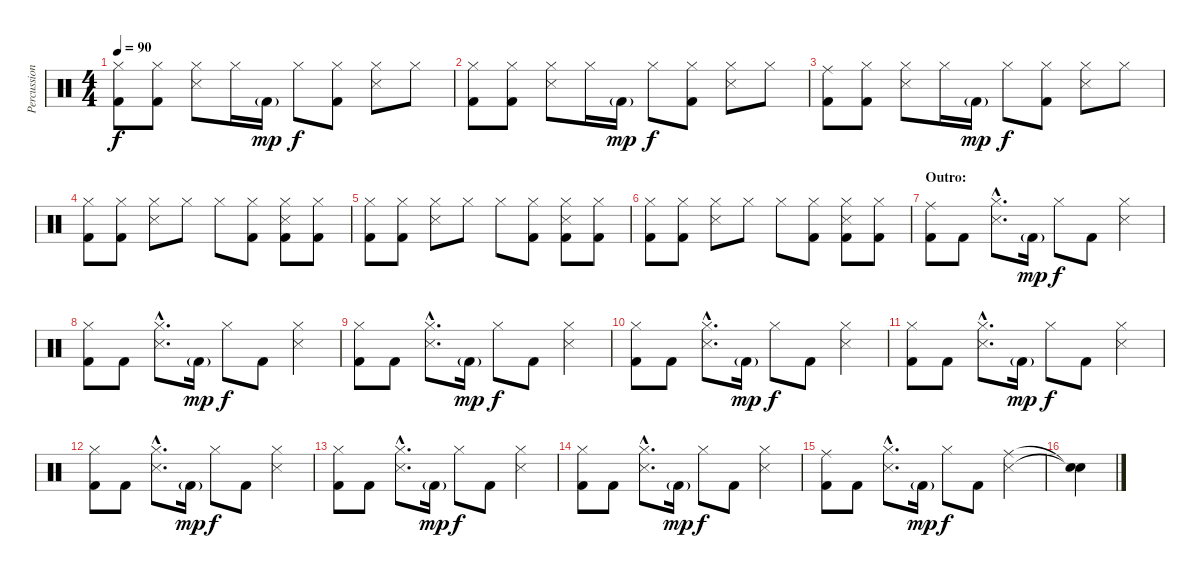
\track ("Percussion" "Percussion") {instrument percussion}
\staff {score}
\articulation defaults
\ts (4 4)
\tempo 90
\clef neutral
\ks c
("Hi-Hat (closed)" "Kick (hit) 2").8{dy f} ("Hi-Hat (closed)" "Kick (hit) 2").8 ("Hi-Hat (closed)" "Snare (side stick) 3").8 "Hi-Hat (closed)".16 "Kick (hit) 2"{g}.16{dy mp} "Hi-Hat (closed)".8{dy f} ("Hi-Hat (closed)" "Kick (hit) 2").8 ("Hi-Hat (closed)" "Snare (side stick) 3").8 "Hi-Hat (closed)".8 |
("Hi-Hat (closed)" "Kick (hit) 2").8 ("Hi-Hat (closed)" "Kick (hit) 2").8 ("Hi-Hat (closed)" "Snare (side stick) 3").8 "Hi-Hat (closed)".16 "Kick (hit) 2"{g}.16{dy mp} "Hi-Hat (closed)".8{dy f} ("Hi-Hat (closed)" "Kick (hit) 2").8 ("Hi-Hat (closed)" "Snare (side stick) 3").8 "Hi-Hat (closed)".8 |
("Ride (middle)" "Kick (hit) 2").8 ("Hi-Hat (closed)" "Kick (hit) 2").8 ("Hi-Hat (closed)" "Snare (side stick) 3").8 "Hi-Hat (closed)".16 "Kick (hit) 2"{g}.16{dy mp} "Hi-Hat (closed)".8{dy f} ("Hi-Hat (closed)" "Kick (hit) 2").8 ("Hi-Hat (closed)" "Snare (side stick) 3").8 "Hi-Hat (closed)".8 |
("Hi-Hat (closed)" "Kick (hit) 2").8 ("Hi-Hat (closed)" "Kick (hit) 2").8 ("Hi-Hat (closed)" "Snare (side stick) 3").8 "Hi-Hat (closed)".8 "Hi-Hat (closed)".8 ("Hi-Hat (closed)" "Kick (hit) 2").8 ("Hi-Hat (closed)" "Snare (side stick) 3" "Kick (hit) 2").8 ("Hi-Hat (closed)" "Kick (hit) 2").8 |
("Hi-Hat (closed)" "Kick (hit) 2").8 ("Hi-Hat (closed)" "Kick (hit) 2").8 ("Hi-Hat (closed)" "Snare (side stick) 3").8 "Hi-Hat (closed)".8 "Hi-Hat (closed)".8 ("Hi-Hat (closed)" "Kick (hit) 2").8 ("Hi-Hat (closed)" "Snare (side stick) 3" "Kick (hit) 2").8 ("Hi-Hat (closed)" "Kick (hit) 2").8 |
("Hi-Hat (closed)" "Kick (hit) 2").8 ("Hi-Hat (closed)" "Kick (hit) 2").8 ("Hi-Hat (closed)" "Snare (side stick) 3").8 "Hi-Hat (closed)".8 "Hi-Hat (closed)".8 ("Hi-Hat (closed)" "Kick (hit) 2").8 ("Hi-Hat (closed)" "Snare (side stick) 3" "Kick (hit) 2").8 ("Hi-Hat (closed)" "Kick (hit) 2").8 |
\section ("" "Outro:")
("Ride (middle)" "Kick (hit) 2").8 "Kick (hit) 2".8 ("Hi-Hat (closed)"{hac} "Snare (side stick) 3"{hac}).8{d} "Kick (hit) 2"{g}.16{dy mp} "Hi-Hat (closed)".8{dy f} "Kick (hit) 2".8 ("Hi-Hat (closed)" "Snare (side stick) 3").4 |
("Hi-Hat (closed)" "Kick (hit) 2").8 "Kick (hit) 2".8 ("Hi-Hat (closed)"{hac} "Snare (side stick) 3"{hac}).8{d} "Kick (hit) 2"{g}.16{dy mp} "Hi-Hat (closed)".8{dy f} "Kick (hit) 2".8 ("Hi-Hat (closed)" "Snare (side stick) 3").4 |
("Hi-Hat (closed)" "Kick (hit) 2").8 "Kick (hit) 2".8 ("Hi-Hat (closed)"{hac} "Snare (side stick) 3"{hac}).8{d} "Kick (hit) 2"{g}.16{dy mp} "Hi-Hat (closed)".8{dy f} "Kick (hit) 2".8 ("Hi-Hat (closed)" "Snare (side stick) 3").4 |
("Hi-Hat (closed)" "Kick (hit) 2").8 "Kick (hit) 2".8 ("Hi-Hat (closed)"{hac} "Snare (side stick) 3"{hac}).8{d} "Kick (hit) 2"{g}.16{dy mp} "Hi-Hat (closed)".8{dy f} "Kick (hit) 2".8 ("Hi-Hat (closed)" "Snare (side stick) 3").4 |
("Hi-Hat (closed)" "Kick (hit) 2").8 "Kick (hit) 2".8 ("Hi-Hat (closed)"{hac} "Snare (side stick) 3"{hac}).8{d} "Kick (hit) 2"{g}.16{dy mp} "Hi-Hat (closed)".8{dy f} "Kick (hit) 2".8 ("Hi-Hat (closed)" "Snare (side stick) 3").4 |
("Hi-Hat (closed)" "Kick (hit) 2").8 "Kick (hit) 2".8 ("Hi-Hat (closed)"{hac} "Snare (side stick) 3"{hac}).8{d} "Kick (hit) 2"{g}.16{dy mp} "Hi-Hat (closed)".8{dy f} "Kick (hit) 2".8 ("Hi-Hat (closed)" "Snare (side stick) 3").4 |
("Hi-Hat (closed)" "Kick (hit) 2").8 "Kick (hit) 2".8 ("Hi-Hat (closed)"{hac} "Snare (side stick) 3"{hac}).8{d} "Kick (hit) 2"{g}.16{dy mp} "Hi-Hat (closed)".8{dy f} "Kick (hit) 2".8 ("Hi-Hat (closed)" "Snare (side stick) 3").4 |
("Hi-Hat (closed)" "Kick (hit) 2").8 "Kick (hit) 2".8 ("Hi-Hat (closed)"{hac} "Snare (side stick) 3"{hac}).8{d} "Kick (hit) 2"{g}.16{dy mp} "Hi-Hat (closed)".8{dy f} "Kick (hit) 2".8 ("Hi-Hat (closed)" "Snare (side stick) 3").4 |
("Ride (middle)" "Kick (hit) 2").8 "Kick (hit) 2".8 ("Hi-Hat (closed)"{hac} "Snare (side stick) 3"{hac}).8{d} "Kick (hit) 2"{g}.16{dy mp} "Hi-Hat (closed)".8{dy f} "Kick (hit) 2".8 ("Ride (middle)" "Snare (side stick) 3").4 |
("Snare (hit)"{t} "Snare (hit)"{t}).4
